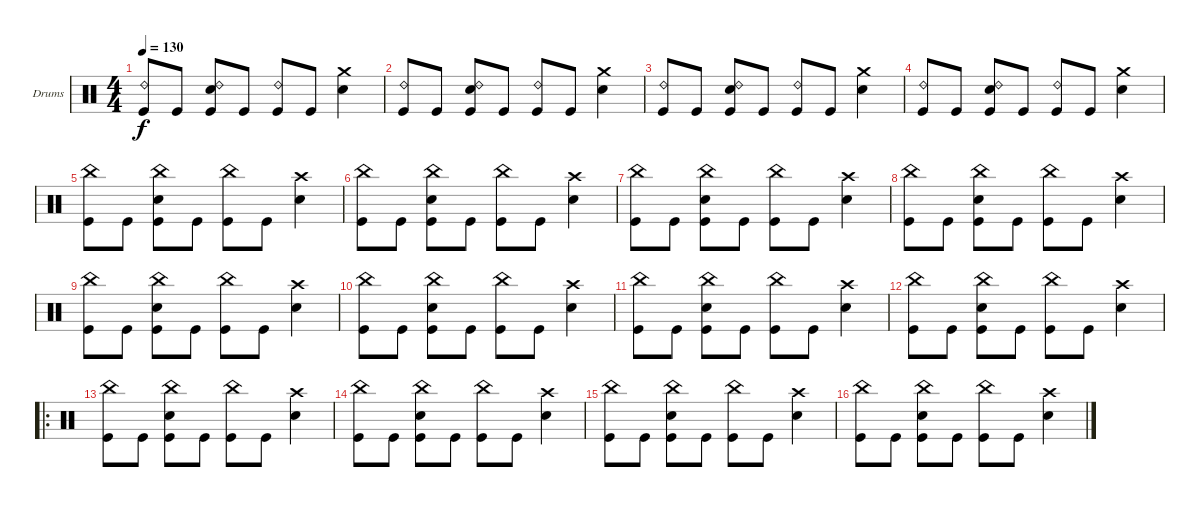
\defaultSystemsLayout 4
\bracketExtendMode groupsimilarinstruments
\firstSystemTrackNameOrientation horizontal
\otherSystemsTrackNameOrientation horizontal
\track ("Drumkit" "Drums") {instrument percussion}
\staff {score}
\articulation defaults
\ts (4 4)
\tempo 130
\clef neutral
\scale
0.333333
\ks c
("Ride (bell) 2" "Kick (hit)").8{dy f} "Kick (hit)".8 ("Ride (bell) 2" "Snare (hit) 2" "Kick (hit)").8 "Kick (hit)".8 ("Ride (bell) 2" "Kick (hit)").8 "Kick (hit)".8 ("Crash medium (hit)" "Snare (hit) 2").4 |
\scale
0.333333 ("Ride (bell) 2" "Kick (hit)").8 "Kick (hit)".8 ("Ride (bell) 2" "Snare (hit) 2" "Kick (hit)").8 "Kick (hit)".8 ("Ride (bell) 2" "Kick (hit)").8 "Kick (hit)".8 ("Crash medium (hit)" "Snare (hit) 2").4 |
\scale
0.333333 ("Ride (bell) 2" "Kick (hit)").8 "Kick (hit)".8 ("Ride (bell) 2" "Snare (hit) 2" "Kick (hit)").8 "Kick (hit)".8 ("Ride (bell) 2" "Kick (hit)").8 "Kick (hit)".8 ("Crash medium (hit)" "Snare (hit) 2").4 |
\scale
0.333333 ("Ride (bell) 2" "Kick (hit)").8 "Kick (hit)".8 ("Ride (bell) 2" "Snare (hit) 2" "Kick (hit)").8 "Kick (hit)".8 ("Ride (bell) 2" "Kick (hit)").8 "Kick (hit)".8 ("Crash medium (hit)" "Snare (hit) 2").4 |
\scale
0.333333 ("China (hit)" "Kick (hit)").8 "Kick (hit)".8 ("China (hit)" "Snare (hit) 2" "Kick (hit)").8 "Kick (hit)".8 ("China (hit)" "Kick (hit)").8 "Kick (hit)".8 ("Crash high (hit)" "Snare (hit) 2").4 |
\scale
0.333333 ("China (hit)" "Kick (hit)").8 "Kick (hit)".8 ("China (hit)" "Snare (hit) 2" "Kick (hit)").8 "Kick (hit)".8 ("China (hit)" "Kick (hit)").8 "Kick (hit)".8 ("Crash high (hit)" "Snare (hit) 2").4 |
\scale
0.333333 ("China (hit)" "Kick (hit)").8 "Kick (hit)".8 ("China (hit)" "Snare (hit) 2" "Kick (hit)").8 "Kick (hit)".8 ("China (hit)" "Kick (hit)").8 "Kick (hit)".8 ("Crash high (hit)" "Snare (hit) 2").4 |
\scale
0.333333 ("China (hit)" "Kick (hit)").8 "Kick (hit)".8 ("China (hit)" "Snare (hit) 2" "Kick (hit)").8 "Kick (hit)".8 ("China (hit)" "Kick (hit)").8 "Kick (hit)".8 ("Crash high (hit)" "Snare (hit) 2").4 |
\scale
0.333333 ("China (hit)" "Kick (hit)").8 "Kick (hit)".8 ("China (hit)" "Snare (hit) 2" "Kick (hit)").8 "Kick (hit)".8 ("China (hit)" "Kick (hit)").8 "Kick (hit)".8 ("Crash high (hit)" "Snare (hit) 2").4 |
\scale
0.333333 ("China (hit)" "Kick (hit)").8 "Kick (hit)".8 ("China (hit)" "Snare (hit) 2" "Kick (hit)").8 "Kick (hit)".8 ("China (hit)" "Kick (hit)").8 "Kick (hit)".8 ("Crash high (hit)" "Snare (hit) 2").4 |
\scale
0.333333 ("China (hit)" "Kick (hit)").8 "Kick (hit)".8 ("China (hit)" "Snare (hit) 2" "Kick (hit)").8 "Kick (hit)".8 ("China (hit)" "Kick (hit)").8 "Kick (hit)".8 ("Crash high (hit)" "Snare (hit) 2").4 |
\scale
0.333333 ("China (hit)" "Kick (hit)").8 "Kick (hit)".8 ("China (hit)" "Snare (hit) 2" "Kick (hit)").8 "Kick (hit)".8 ("China (hit)" "Kick (hit)").8 "Kick (hit)".8 ("Crash high (hit)" "Snare (hit) 2").4 |
\ro
\scale
0.333333 ("China (hit)" "Kick (hit)").8 "Kick (hit)".8 ("China (hit)" "Snare (hit) 2" "Kick (hit)").8 "Kick (hit)".8 ("China (hit)" "Kick (hit)").8 "Kick (hit)".8 ("Crash high (hit)" "Snare (hit) 2").4 |
\scale
0.333333 ("China (hit)" "Kick (hit)").8 "Kick (hit)".8 ("China (hit)" "Snare (hit) 2" "Kick (hit)").8 "Kick (hit)".8 ("China (hit)" "Kick (hit)").8 "Kick (hit)".8 ("Crash high (hit)" "Snare (hit) 2").4 |
\scale
0.333333 ("China (hit)" "Kick (hit)").8 "Kick (hit)".8 ("China (hit)" "Snare (hit) 2" "Kick (hit)").8 "Kick (hit)".8 ("China (hit)" "Kick (hit)").8 "Kick (hit)".8 ("Crash high (hit)" "Snare (hit) 2").4 |
\scale
0.333333 ("China (hit)" "Kick (hit)").8 "Kick (hit)".8 ("China (hit)" "Snare (hit) 2" "Kick (hit)").8 "Kick (hit)".8 ("China (hit)" "Kick (hit)").8 "Kick (hit)".8 ("Crash high (hit)" "Snare (hit) 2").4
